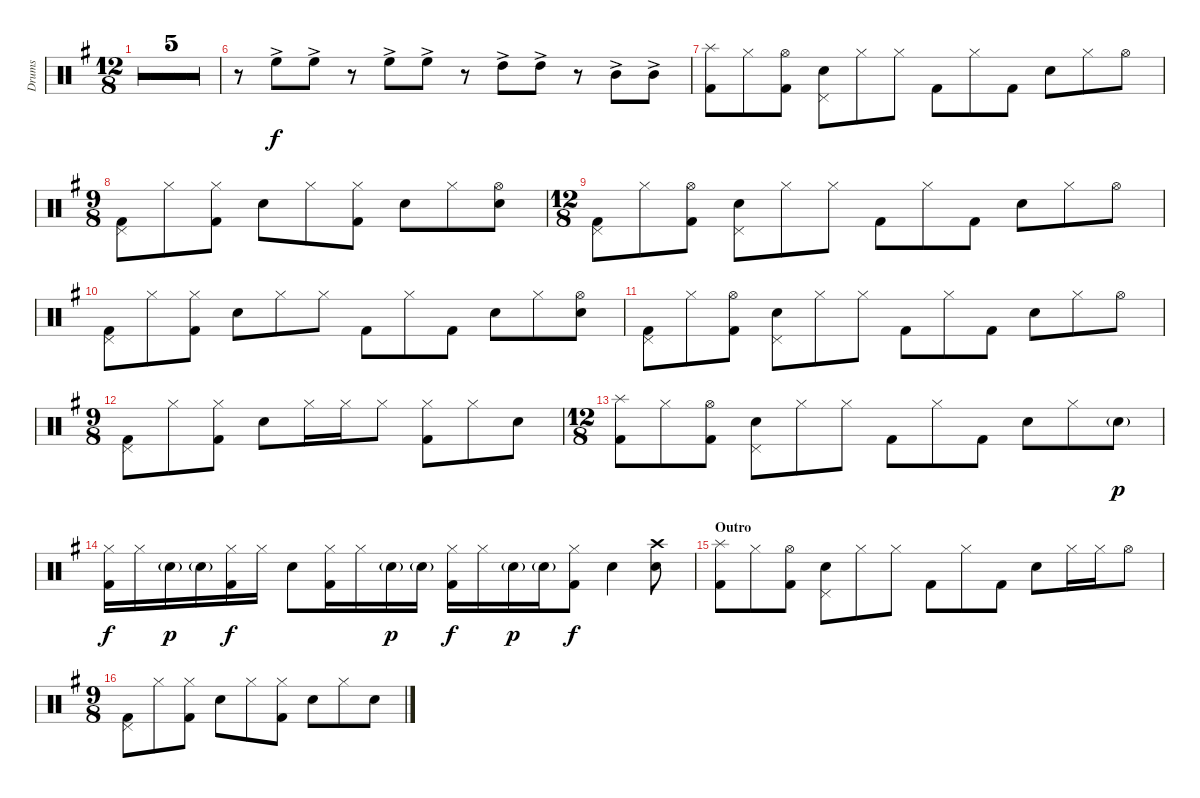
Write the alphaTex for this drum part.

\defaultSystemsLayout 4
\bracketExtendMode groupsimilarinstruments
\otherSystemsTrackNameOrientation horizontal
\track ("Drumkit" "Drums") {multiBarRest instrument percussion}
\staff {score}
\articulation defaults
\ts (12 8)
\beaming (8 3 3 3 3)
\tempo 192
\clef neutral
\ks g
r.1{d dy f} |
r.1{d} |
r.1{d} |
\ts (9 8)
\beaming (8 3 3 3 3)
r.1 r.8 |
\ts (12 8)
\beaming (8 3 3 3 3)
r.1{d} |
r.8 "High Floor Tom (hit)"{ac acc forcenatural}.8 "High Floor Tom (hit)"{ac acc forcenatural}.8 r.8 "High Floor Tom (hit)"{ac acc forcenatural}.8 "High Floor Tom (hit)"{ac acc forcenatural}.8 r.8 "High Tom (hit)"{ac acc forcenatural}.8 "High Tom (hit)"{ac acc forcenatural}.8 r.8 "Mid Tom (hit)"{ac acc forcenatural}.8 "Mid Tom (hit)"{ac acc forcenatural}.8 |
("Splash (hit)"{acc forcenatural} "Kick (hit) 2"{acc forcenatural}).8 "Hi-Hat (closed)"{acc forcenatural}.8 ("Hi-Hat (open)"{acc forcenatural} "Kick (hit) 2"{acc forcenatural}).8 ("Snare (hit) 2"{acc forcenatural} "Pedal Hi-Hat (hit)"{acc forcenatural}).8 "Hi-Hat (closed)"{acc forcenatural}.8 "Hi-Hat (closed)"{acc forcenatural}.8 "Kick (hit) 2"{acc forcenatural}.8 "Hi-Hat (closed)"{acc forcenatural}.8 "Kick (hit) 2"{acc forcenatural}.8 "Snare (hit) 2"{acc forcenatural}.8 "Hi-Hat (closed)"{acc forcenatural}.8 "Hi-Hat (open)"{acc forcenatural}.8 |
\ts (9 8)
\beaming (8 3 3 3 3)
("Kick (hit) 2"{acc forcenatural} "Pedal Hi-Hat (hit)"{acc forcenatural}).8 "Hi-Hat (closed)"{acc forcenatural}.8 ("Hi-Hat (closed)"{acc forcenatural} "Kick (hit) 2"{acc forcenatural}).8 "Snare (hit) 2"{acc forcenatural}.8 "Hi-Hat (closed)"{acc forcenatural}.8 ("Hi-Hat (closed)"{acc forcenatural} "Kick (hit) 2"{acc forcenatural}).8 "Snare (hit) 2"{acc forcenatural}.8 "Hi-Hat (closed)"{acc forcenatural}.8 ("Hi-Hat (open)"{acc forcenatural} "Snare (hit) 2"{acc forcenatural}).8 |
\ts (12 8)
\beaming (8 3 3 3 3)
("Kick (hit) 2"{acc forcenatural} "Pedal Hi-Hat (hit)"{acc forcenatural}).8 "Hi-Hat (closed)"{acc forcenatural}.8 ("Hi-Hat (open)"{acc forcenatural} "Kick (hit) 2"{acc forcenatural}).8 ("Snare (hit) 2"{acc forcenatural} "Pedal Hi-Hat (hit)"{acc forcenatural}).8 "Hi-Hat (closed)"{acc forcenatural}.8 "Hi-Hat (closed)"{acc forcenatural}.8 "Kick (hit) 2"{acc forcenatural}.8 "Hi-Hat (closed)"{acc forcenatural}.8 "Kick (hit) 2"{acc forcenatural}.8 "Snare (hit) 2"{acc forcenatural}.8 "Hi-Hat (closed)"{acc forcenatural}.8 "Hi-Hat (open)"{acc forcenatural}.8 |
("Kick (hit) 2"{acc forcenatural} "Pedal Hi-Hat (hit)"{acc forcenatural}).8 "Hi-Hat (closed)"{acc forcenatural}.8 ("Hi-Hat (closed)"{acc forcenatural} "Kick (hit) 2"{acc forcenatural}).8 "Snare (hit) 2"{acc forcenatural}.8 "Hi-Hat (closed)"{acc forcenatural}.8 "Hi-Hat (closed)"{acc forcenatural}.8 "Kick (hit) 2"{acc forcenatural}.8 "Hi-Hat (closed)"{acc forcenatural}.8 "Kick (hit) 2"{acc forcenatural}.8 "Snare (hit) 2"{acc forcenatural}.8 "Hi-Hat (closed)"{acc forcenatural}.8 ("Hi-Hat (open)"{acc forcenatural} "Snare (hit) 2"{acc forcenatural}).8 |
("Kick (hit) 2"{acc forcenatural} "Pedal Hi-Hat (hit)"{acc forcenatural}).8 "Hi-Hat (closed)"{acc forcenatural}.8 ("Hi-Hat (open)"{acc forcenatural} "Kick (hit) 2"{acc forcenatural}).8 ("Snare (hit) 2"{acc forcenatural} "Pedal Hi-Hat (hit)"{acc forcenatural}).8 "Hi-Hat (closed)"{acc forcenatural}.8 "Hi-Hat (closed)"{acc forcenatural}.8 "Kick (hit) 2"{acc forcenatural}.8 "Hi-Hat (closed)"{acc forcenatural}.8 "Kick (hit) 2"{acc forcenatural}.8 "Snare (hit) 2"{acc forcenatural}.8 "Hi-Hat (closed)"{acc forcenatural}.8 "Hi-Hat (open)"{acc forcenatural}.8 |
\ts (9 8)
\beaming (8 3 3 3 3)
("Kick (hit) 2"{acc forcenatural} "Pedal Hi-Hat (hit)"{acc forcenatural}).8 "Hi-Hat (closed)"{acc forcenatural}.8 ("Hi-Hat (closed)"{acc forcenatural} "Kick (hit) 2"{acc forcenatural}).8 "Snare (hit) 2"{acc forcenatural}.8 "Hi-Hat (closed)"{acc forcenatural}.16 "Hi-Hat (closed)"{acc forcenatural}.16 "Hi-Hat (closed)"{acc forcenatural}.8 ("Hi-Hat (closed)"{acc forcenatural} "Kick (hit) 2"{acc forcenatural}).8 "Hi-Hat (closed)"{acc forcenatural}.8 "Snare (hit) 2"{acc forcenatural}.8 |
\ts (12 8)
\beaming (8 3 3 3 3)
("Splash (hit)"{acc forcenatural} "Kick (hit) 2"{acc forcenatural}).8 "Hi-Hat (closed)"{acc forcenatural}.8 ("Hi-Hat (open)"{acc forcenatural} "Kick (hit) 2"{acc forcenatural}).8 ("Snare (hit) 2"{acc forcenatural} "Pedal Hi-Hat (hit)"{acc forcenatural}).8 "Hi-Hat (closed)"{acc forcenatural}.8 "Hi-Hat (closed)"{acc forcenatural}.8 "Kick (hit) 2"{acc forcenatural}.8 "Hi-Hat (closed)"{acc forcenatural}.8 "Kick (hit) 2"{acc forcenatural}.8 "Snare (hit) 2"{acc forcenatural}.8 "Hi-Hat (closed)"{acc forcenatural}.8 "Snare (hit) 2"{g acc forcenatural}.8{dy p} |
("Hi-Hat (closed)"{acc forcenatural} "Kick (hit) 2"{acc forcenatural}).16{dy f} "Hi-Hat (closed)"{acc forcenatural}.16 "Snare (hit) 2"{g acc forcenatural}.16{dy p} "Snare (hit) 2"{g acc forcenatural}.16 ("Hi-Hat (closed)"{acc forcenatural} "Kick (hit) 2"{acc forcenatural}).16{dy f} "Hi-Hat (closed)"{acc forcenatural}.16 "Snare (hit) 2"{acc forcenatural}.8 ("Hi-Hat (closed)"{acc forcenatural} "Kick (hit) 2"{acc forcenatural}).16 "Hi-Hat (closed)"{acc forcenatural}.16 "Snare (hit) 2"{g acc forcenatural}.16{dy p} "Snare (hit) 2"{g acc forcenatural}.16 ("Hi-Hat (closed)"{acc forcenatural} "Kick (hit) 2"{acc forcenatural}).16{dy f} "Hi-Hat (closed)"{acc forcenatural}.16 "Snare (hit) 2"{g acc forcenatural}.16{dy p} "Snare (hit) 2"{g acc forcenatural}.16 ("Hi-Hat (closed)"{acc forcenatural} "Kick (hit) 2"{acc forcenatural}).8{dy f} "Snare (hit) 2"{acc forcenatural}.4 ("Snare (hit) 2"{acc forcenatural} "Crash high (hit)"{acc forcenatural}).8 |
\section ("" "Outro")
("Splash (hit)"{acc forcenatural} "Kick (hit) 2"{acc forcenatural}).8 "Hi-Hat (closed)"{acc forcenatural}.8 ("Hi-Hat (open)"{acc forcenatural} "Kick (hit) 2"{acc forcenatural}).8 ("Snare (hit) 2"{acc forcenatural} "Pedal Hi-Hat (hit)"{acc forcenatural}).8 "Hi-Hat (closed)"{acc forcenatural}.8 "Hi-Hat (closed)"{acc forcenatural}.8 "Kick (hit) 2"{acc forcenatural}.8 "Hi-Hat (closed)"{acc forcenatural}.8 "Kick (hit) 2"{acc forcenatural}.8 "Snare (hit) 2"{acc forcenatural}.8 "Hi-Hat (closed)"{acc forcenatural}.16 "Hi-Hat (closed)"{acc forcenatural}.16 "Hi-Hat (open)"{acc forcenatural}.8 |
\ts (9 8)
\beaming (8 3 3 3 3)
("Kick (hit) 2"{acc forcenatural} "Pedal Hi-Hat (hit)"{acc forcenatural}).8 "Hi-Hat (closed)"{acc forcenatural}.8 ("Hi-Hat (closed)"{acc forcenatural} "Kick (hit) 2"{acc forcenatural}).8 "Snare (hit) 2"{acc forcenatural}.8 "Hi-Hat (closed)"{acc forcenatural}.8 ("Hi-Hat (closed)"{acc forcenatural} "Kick (hit) 2"{acc forcenatural}).8 "Snare (hit) 2"{acc forcenatural}.8 "Hi-Hat (closed)"{acc forcenatural}.8 "Snare (hit) 2"{acc forcenatural}.8
